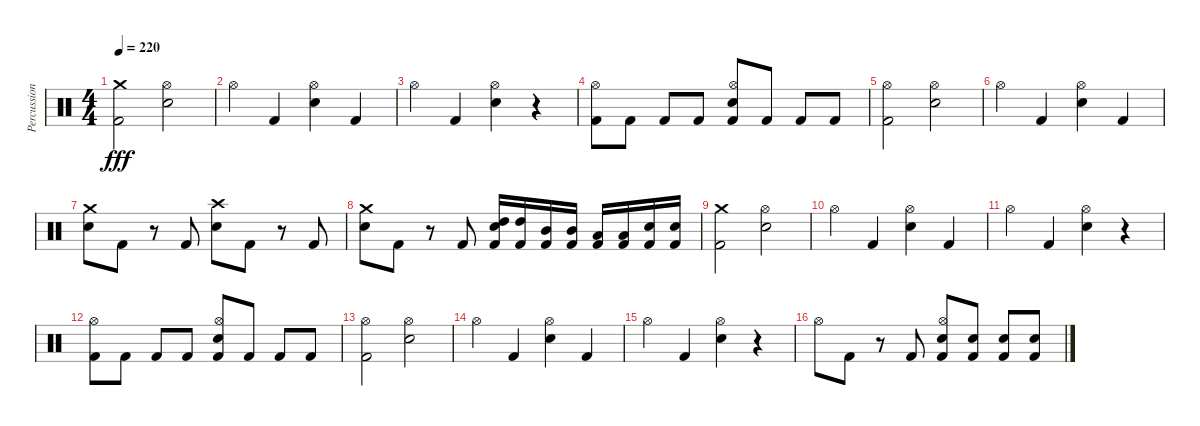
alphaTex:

\track ("Percussion" "Percussion") {instrument percussion}
\staff {score}
\articulation defaults
\ts (4 4)
\tempo 220
\clef neutral
\ks c
("Crash medium (hit)" "Kick (hit) 2").2{dy fff} ("Hi-Hat (open)" "Electric Snare (hit)").2 |
"Hi-Hat (open)".4 "Kick (hit) 2".4 ("Hi-Hat (open)" "Electric Snare (hit)").4 "Kick (hit) 2".4 |
"Hi-Hat (open)".4 "Kick (hit) 2".4 ("Hi-Hat (open)" "Electric Snare (hit)").4 r.4 |
("Hi-Hat (open)" "Kick (hit) 2").8 "Kick (hit) 2".8 "Kick (hit) 2".8 "Kick (hit) 2".8 ("Hi-Hat (open)" "Electric Snare (hit)" "Kick (hit) 2").8 "Kick (hit) 2".8 "Kick (hit) 2".8 "Kick (hit) 2".8 |
("Hi-Hat (open)" "Kick (hit) 2").2 ("Hi-Hat (open)" "Electric Snare (hit)").2 |
"Hi-Hat (open)".4 "Kick (hit) 2".4 ("Hi-Hat (open)" "Electric Snare (hit)").4 "Kick (hit) 2".4 |
("Crash medium (hit)" "Electric Snare (hit)").8 "Kick (hit) 2".8 r.8 "Kick (hit) 2".8 ("Crash high (hit)" "Electric Snare (hit)").8 "Kick (hit) 2".8 r.8 "Kick (hit) 2".8 |
("Crash medium (hit)" "Electric Snare (hit)").8 "Kick (hit) 2".8 r.8 "Kick (hit) 2".8 ("High Tom (hit)" "Electric Snare (hit)" "Kick (hit) 2").16 ("High Tom (hit)" "Kick (hit) 2").16 ("Mid Tom (hit)" "Kick (hit) 2").16 ("Mid Tom (hit)" "Kick (hit) 2").16 ("Low Tom (hit)" "Kick (hit) 2").16 ("Low Tom (hit)" "Kick (hit) 2").16 ("Electric Snare (hit)" "Kick (hit) 2").16 ("Electric Snare (hit)" "Kick (hit) 2").16 |
("Crash medium (hit)" "Kick (hit) 2").2 ("Hi-Hat (open)" "Electric Snare (hit)").2 |
"Hi-Hat (open)".4 "Kick (hit) 2".4 ("Hi-Hat (open)" "Electric Snare (hit)").4 "Kick (hit) 2".4 |
"Hi-Hat (open)".4 "Kick (hit) 2".4 ("Hi-Hat (open)" "Electric Snare (hit)").4 r.4 |
("Hi-Hat (open)" "Kick (hit) 2").8 "Kick (hit) 2".8 "Kick (hit) 2".8 "Kick (hit) 2".8 ("Hi-Hat (open)" "Electric Snare (hit)" "Kick (hit) 2").8 "Kick (hit) 2".8 "Kick (hit) 2".8 "Kick (hit) 2".8 |
("Hi-Hat (open)" "Kick (hit) 2").2 ("Hi-Hat (open)" "Electric Snare (hit)").2 |
"Hi-Hat (open)".4 "Kick (hit) 2".4 ("Hi-Hat (open)" "Electric Snare (hit)").4 "Kick (hit) 2".4 |
"Hi-Hat (open)".4 "Kick (hit) 2".4 ("Hi-Hat (open)" "Electric Snare (hit)").4 r.4 |
"Hi-Hat (open)".8 "Kick (hit) 2".8 r.8 "Kick (hit) 2".8 ("Hi-Hat (open)" "Electric Snare (hit)" "Kick (hit) 2").8 ("Electric Snare (hit)" "Kick (hit) 2").8 ("Electric Snare (hit)" "Kick (hit) 2").8 ("Electric Snare (hit)" "Kick (hit) 2").8
